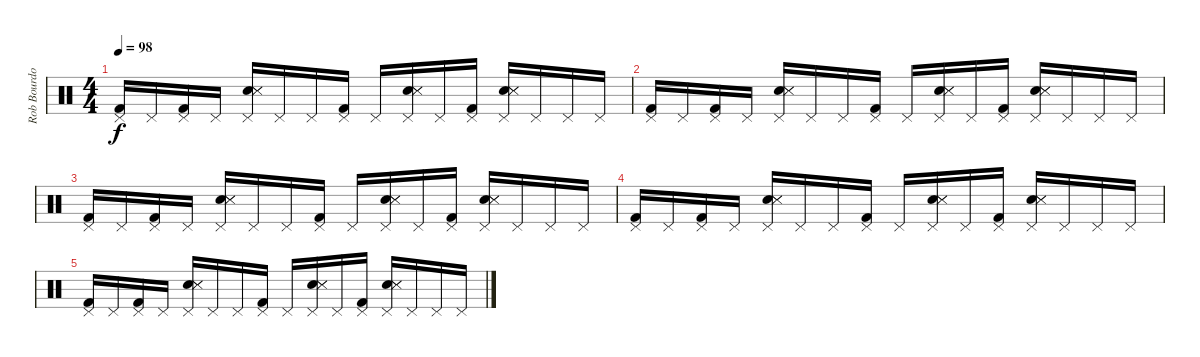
\track ("Rob Bourdon (Drums)" "Rob Bourdo") {instrument percussion}
\staff {score}
\articulation defaults
\ts (4 4)
\tempo 98
\clef neutral
\ks c
("Pedal Hi-Hat (hit)" "Kick (hit) 2").16{dy f volume 3} "Pedal Hi-Hat (hit)".16 ("Pedal Hi-Hat (hit)" "Kick (hit) 2").16 "Pedal Hi-Hat (hit)".16 ("Pedal Hi-Hat (hit)" "Electric Snare (hit)" "Snare (side stick) 3" "Metronome (hit)").16 "Pedal Hi-Hat (hit)".16 "Pedal Hi-Hat (hit)".16 ("Pedal Hi-Hat (hit)" "Kick (hit) 2").16 "Pedal Hi-Hat (hit)".16 ("Pedal Hi-Hat (hit)" "Electric Snare (hit)" "Snare (side stick) 3" "Metronome (hit)").16 "Pedal Hi-Hat (hit)".16 ("Pedal Hi-Hat (hit)" "Kick (hit) 2").16 ("Pedal Hi-Hat (hit)" "Electric Snare (hit)" "Snare (side stick) 3" "Metronome (hit)").16 "Pedal Hi-Hat (hit)".16 "Pedal Hi-Hat (hit)".16 "Pedal Hi-Hat (hit)".16 |
("Pedal Hi-Hat (hit)" "Kick (hit) 2").16{volume 1} "Pedal Hi-Hat (hit)".16 ("Pedal Hi-Hat (hit)" "Kick (hit) 2").16 "Pedal Hi-Hat (hit)".16 ("Pedal Hi-Hat (hit)" "Electric Snare (hit)" "Snare (side stick) 3" "Metronome (hit)").16 "Pedal Hi-Hat (hit)".16 "Pedal Hi-Hat (hit)".16 ("Pedal Hi-Hat (hit)" "Kick (hit) 2").16 "Pedal Hi-Hat (hit)".16 ("Pedal Hi-Hat (hit)" "Electric Snare (hit)" "Snare (side stick) 3" "Metronome (hit)").16 "Pedal Hi-Hat (hit)".16 ("Pedal Hi-Hat (hit)" "Kick (hit) 2").16 ("Pedal Hi-Hat (hit)" "Electric Snare (hit)" "Snare (side stick) 3" "Metronome (hit)").16 "Pedal Hi-Hat (hit)".16 "Pedal Hi-Hat (hit)".16 "Pedal Hi-Hat (hit)".16 |
("Pedal Hi-Hat (hit)" "Kick (hit) 2").16{volume 0} "Pedal Hi-Hat (hit)".16 ("Pedal Hi-Hat (hit)" "Kick (hit) 2").16 "Pedal Hi-Hat (hit)".16 ("Pedal Hi-Hat (hit)" "Electric Snare (hit)" "Snare (side stick) 3" "Metronome (hit)").16 "Pedal Hi-Hat (hit)".16 "Pedal Hi-Hat (hit)".16 ("Pedal Hi-Hat (hit)" "Kick (hit) 2").16 "Pedal Hi-Hat (hit)".16 ("Pedal Hi-Hat (hit)" "Electric Snare (hit)" "Snare (side stick) 3" "Metronome (hit)").16 "Pedal Hi-Hat (hit)".16 ("Pedal Hi-Hat (hit)" "Kick (hit) 2").16 ("Pedal Hi-Hat (hit)" "Electric Snare (hit)" "Snare (side stick) 3" "Metronome (hit)").16 "Pedal Hi-Hat (hit)".16 "Pedal Hi-Hat (hit)".16 "Pedal Hi-Hat (hit)".16 |
("Pedal Hi-Hat (hit)" "Kick (hit) 2").16{volume 0} "Pedal Hi-Hat (hit)".16 ("Pedal Hi-Hat (hit)" "Kick (hit) 2").16 "Pedal Hi-Hat (hit)".16 ("Pedal Hi-Hat (hit)" "Electric Snare (hit)" "Snare (side stick) 3" "Metronome (hit)").16 "Pedal Hi-Hat (hit)".16 "Pedal Hi-Hat (hit)".16 ("Pedal Hi-Hat (hit)" "Kick (hit) 2").16 "Pedal Hi-Hat (hit)".16 ("Pedal Hi-Hat (hit)" "Electric Snare (hit)" "Snare (side stick) 3" "Metronome (hit)").16 "Pedal Hi-Hat (hit)".16 ("Pedal Hi-Hat (hit)" "Kick (hit) 2").16 ("Pedal Hi-Hat (hit)" "Electric Snare (hit)" "Snare (side stick) 3" "Metronome (hit)").16 "Pedal Hi-Hat (hit)".16 "Pedal Hi-Hat (hit)".16 "Pedal Hi-Hat (hit)".16 |
("Pedal Hi-Hat (hit)" "Kick (hit) 2").16{volume 0} "Pedal Hi-Hat (hit)".16 ("Pedal Hi-Hat (hit)" "Kick (hit) 2").16 "Pedal Hi-Hat (hit)".16 ("Pedal Hi-Hat (hit)" "Electric Snare (hit)" "Snare (side stick) 3" "Metronome (hit)").16 "Pedal Hi-Hat (hit)".16 "Pedal Hi-Hat (hit)".16 ("Pedal Hi-Hat (hit)" "Kick (hit) 2").16 "Pedal Hi-Hat (hit)".16 ("Pedal Hi-Hat (hit)" "Electric Snare (hit)" "Snare (side stick) 3" "Metronome (hit)").16 "Pedal Hi-Hat (hit)".16 ("Pedal Hi-Hat (hit)" "Kick (hit) 2").16 ("Pedal Hi-Hat (hit)" "Electric Snare (hit)" "Snare (side stick) 3" "Metronome (hit)").16 "Pedal Hi-Hat (hit)".16 "Pedal Hi-Hat (hit)".16 "Pedal Hi-Hat (hit)".16
